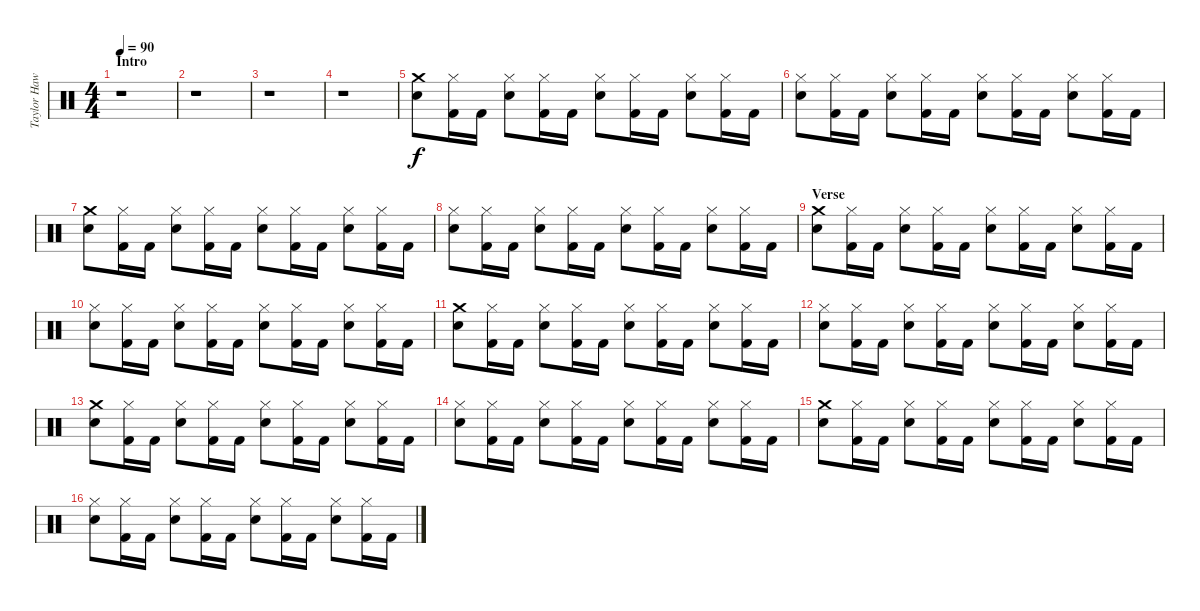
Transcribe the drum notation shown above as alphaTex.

\track ("Taylor Hawkins" "Taylor Haw") {instrument percussion}
\staff {score}
\articulation defaults
\ts (4 4)
\section ("" "Intro")
\tempo 90
\clef neutral
\ks c
r.1{dy f} |
r.1 |
r.1 |
r.1 |
("Crash medium (hit)" "Electric Snare (hit)").8 ("Hi-Hat (closed)" "Kick (hit) 2").16 "Kick (hit) 2".16 ("Hi-Hat (closed)" "Electric Snare (hit)").8 ("Hi-Hat (closed)" "Kick (hit) 2").16 "Kick (hit) 2".16 ("Hi-Hat (closed)" "Electric Snare (hit)").8 ("Hi-Hat (closed)" "Kick (hit) 2").16 "Kick (hit) 2".16 ("Hi-Hat (closed)" "Electric Snare (hit)").8 ("Hi-Hat (closed)" "Kick (hit) 2").16 "Kick (hit) 2".16 |
("Hi-Hat (closed)" "Electric Snare (hit)").8 ("Hi-Hat (closed)" "Kick (hit) 2").16 "Kick (hit) 2".16 ("Hi-Hat (closed)" "Electric Snare (hit)").8 ("Hi-Hat (closed)" "Kick (hit) 2").16 "Kick (hit) 2".16 ("Hi-Hat (closed)" "Electric Snare (hit)").8 ("Hi-Hat (closed)" "Kick (hit) 2").16 "Kick (hit) 2".16 ("Hi-Hat (closed)" "Electric Snare (hit)").8 ("Hi-Hat (closed)" "Kick (hit) 2").16 "Kick (hit) 2".16 |
("Crash medium (hit)" "Electric Snare (hit)").8 ("Hi-Hat (closed)" "Kick (hit) 2").16 "Kick (hit) 2".16 ("Hi-Hat (closed)" "Electric Snare (hit)").8 ("Hi-Hat (closed)" "Kick (hit) 2").16 "Kick (hit) 2".16 ("Hi-Hat (closed)" "Electric Snare (hit)").8 ("Hi-Hat (closed)" "Kick (hit) 2").16 "Kick (hit) 2".16 ("Hi-Hat (closed)" "Electric Snare (hit)").8 ("Hi-Hat (closed)" "Kick (hit) 2").16 "Kick (hit) 2".16 |
("Hi-Hat (closed)" "Electric Snare (hit)").8 ("Hi-Hat (closed)" "Kick (hit) 2").16 "Kick (hit) 2".16 ("Hi-Hat (closed)" "Electric Snare (hit)").8 ("Hi-Hat (closed)" "Kick (hit) 2").16 "Kick (hit) 2".16 ("Hi-Hat (closed)" "Electric Snare (hit)").8 ("Hi-Hat (closed)" "Kick (hit) 2").16 "Kick (hit) 2".16 ("Hi-Hat (closed)" "Electric Snare (hit)").8 ("Hi-Hat (closed)" "Kick (hit) 2").16 "Kick (hit) 2".16 |
\section ("" "Verse")
("Crash medium (hit)" "Electric Snare (hit)").8 ("Hi-Hat (closed)" "Kick (hit) 2").16 "Kick (hit) 2".16 ("Hi-Hat (closed)" "Electric Snare (hit)").8 ("Hi-Hat (closed)" "Kick (hit) 2").16 "Kick (hit) 2".16 ("Hi-Hat (closed)" "Electric Snare (hit)").8 ("Hi-Hat (closed)" "Kick (hit) 2").16 "Kick (hit) 2".16 ("Hi-Hat (closed)" "Electric Snare (hit)").8 ("Hi-Hat (closed)" "Kick (hit) 2").16 "Kick (hit) 2".16 |
("Hi-Hat (closed)" "Electric Snare (hit)").8 ("Hi-Hat (closed)" "Kick (hit) 2").16 "Kick (hit) 2".16 ("Hi-Hat (closed)" "Electric Snare (hit)").8 ("Hi-Hat (closed)" "Kick (hit) 2").16 "Kick (hit) 2".16 ("Hi-Hat (closed)" "Electric Snare (hit)").8 ("Hi-Hat (closed)" "Kick (hit) 2").16 "Kick (hit) 2".16 ("Hi-Hat (closed)" "Electric Snare (hit)").8 ("Hi-Hat (closed)" "Kick (hit) 2").16 "Kick (hit) 2".16 |
("Crash medium (hit)" "Electric Snare (hit)").8 ("Hi-Hat (closed)" "Kick (hit) 2").16 "Kick (hit) 2".16 ("Hi-Hat (closed)" "Electric Snare (hit)").8 ("Hi-Hat (closed)" "Kick (hit) 2").16 "Kick (hit) 2".16 ("Hi-Hat (closed)" "Electric Snare (hit)").8 ("Hi-Hat (closed)" "Kick (hit) 2").16 "Kick (hit) 2".16 ("Hi-Hat (closed)" "Electric Snare (hit)").8 ("Hi-Hat (closed)" "Kick (hit) 2").16 "Kick (hit) 2".16 |
("Hi-Hat (closed)" "Electric Snare (hit)").8 ("Hi-Hat (closed)" "Kick (hit) 2").16 "Kick (hit) 2".16 ("Hi-Hat (closed)" "Electric Snare (hit)").8 ("Hi-Hat (closed)" "Kick (hit) 2").16 "Kick (hit) 2".16 ("Hi-Hat (closed)" "Electric Snare (hit)").8 ("Hi-Hat (closed)" "Kick (hit) 2").16 "Kick (hit) 2".16 ("Hi-Hat (closed)" "Electric Snare (hit)").8 ("Hi-Hat (closed)" "Kick (hit) 2").16 "Kick (hit) 2".16 |
("Crash medium (hit)" "Electric Snare (hit)").8 ("Hi-Hat (closed)" "Kick (hit) 2").16 "Kick (hit) 2".16 ("Hi-Hat (closed)" "Electric Snare (hit)").8 ("Hi-Hat (closed)" "Kick (hit) 2").16 "Kick (hit) 2".16 ("Hi-Hat (closed)" "Electric Snare (hit)").8 ("Hi-Hat (closed)" "Kick (hit) 2").16 "Kick (hit) 2".16 ("Hi-Hat (closed)" "Electric Snare (hit)").8 ("Hi-Hat (closed)" "Kick (hit) 2").16 "Kick (hit) 2".16 |
("Hi-Hat (closed)" "Electric Snare (hit)").8 ("Hi-Hat (closed)" "Kick (hit) 2").16 "Kick (hit) 2".16 ("Hi-Hat (closed)" "Electric Snare (hit)").8 ("Hi-Hat (closed)" "Kick (hit) 2").16 "Kick (hit) 2".16 ("Hi-Hat (closed)" "Electric Snare (hit)").8 ("Hi-Hat (closed)" "Kick (hit) 2").16 "Kick (hit) 2".16 ("Hi-Hat (closed)" "Electric Snare (hit)").8 ("Hi-Hat (closed)" "Kick (hit) 2").16 "Kick (hit) 2".16 |
("Crash medium (hit)" "Electric Snare (hit)").8 ("Hi-Hat (closed)" "Kick (hit) 2").16 "Kick (hit) 2".16 ("Hi-Hat (closed)" "Electric Snare (hit)").8 ("Hi-Hat (closed)" "Kick (hit) 2").16 "Kick (hit) 2".16 ("Hi-Hat (closed)" "Electric Snare (hit)").8 ("Hi-Hat (closed)" "Kick (hit) 2").16 "Kick (hit) 2".16 ("Hi-Hat (closed)" "Electric Snare (hit)").8 ("Hi-Hat (closed)" "Kick (hit) 2").16 "Kick (hit) 2".16 |
("Hi-Hat (closed)" "Electric Snare (hit)").8 ("Hi-Hat (closed)" "Kick (hit) 2").16 "Kick (hit) 2".16 ("Hi-Hat (closed)" "Electric Snare (hit)").8 ("Hi-Hat (closed)" "Kick (hit) 2").16 "Kick (hit) 2".16 ("Hi-Hat (closed)" "Electric Snare (hit)").8 ("Hi-Hat (closed)" "Kick (hit) 2").16 "Kick (hit) 2".16 ("Hi-Hat (closed)" "Electric Snare (hit)").8 ("Hi-Hat (closed)" "Kick (hit) 2").16 "Kick (hit) 2".16
